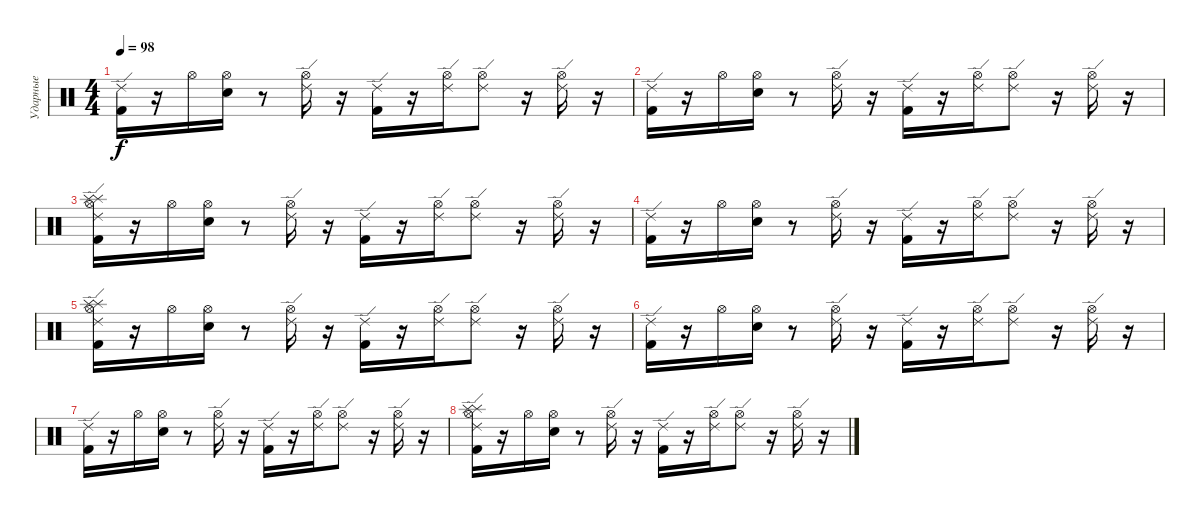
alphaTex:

\track ("Ударные" "Ударные") {instrument percussion}
\staff {score}
\articulation defaults
\ts (4 4)
\tempo 98
\clef neutral
\ks c
("Kick (hit) 2" "Ride (edge) 2").16{dy f} r.16 "Hi-Hat (open)".16 ("Snare (hit)" "Hi-Hat (open)").16 r.8 ("Ride (edge) 2" "Hi-Hat (open)").16 r.16 ("Kick (hit) 2" "Ride (edge) 2").16 r.16 ("Ride (edge) 2" "Hi-Hat (open)").16 ("Ride (edge) 2" "Hi-Hat (open)").8 r.16 ("Ride (edge) 2" "Hi-Hat (open)").16 r.16 |
("Kick (hit) 2" "Ride (edge) 2").16 r.16 "Hi-Hat (open)".16 ("Snare (hit)" "Hi-Hat (open)").16 r.8 ("Ride (edge) 2" "Hi-Hat (open)").16 r.16 ("Kick (hit) 2" "Ride (edge) 2").16 r.16 ("Ride (edge) 2" "Hi-Hat (open)").16 ("Ride (edge) 2" "Hi-Hat (open)").8 r.16 ("Ride (edge) 2" "Hi-Hat (open)").16 r.16 |
("Hi-Hat (open)" "Splash (hit)" "Splash (hit)" "Kick (hit) 2" "Ride (edge) 2").16 r.16 "Hi-Hat (open)".16 ("Snare (hit)" "Hi-Hat (open)").16 r.8 ("Ride (edge) 2" "Hi-Hat (open)").16 r.16 ("Kick (hit) 2" "Ride (edge) 2").16 r.16 ("Ride (edge) 2" "Hi-Hat (open)").16 ("Ride (edge) 2" "Hi-Hat (open)").8 r.16 ("Ride (edge) 2" "Hi-Hat (open)").16 r.16 |
("Kick (hit) 2" "Ride (edge) 2").16 r.16 "Hi-Hat (open)".16 ("Snare (hit)" "Hi-Hat (open)").16 r.8 ("Ride (edge) 2" "Hi-Hat (open)").16 r.16 ("Kick (hit) 2" "Ride (edge) 2").16 r.16 ("Ride (edge) 2" "Hi-Hat (open)").16 ("Ride (edge) 2" "Hi-Hat (open)").8 r.16 ("Ride (edge) 2" "Hi-Hat (open)").16 r.16 |
("Hi-Hat (open)" "Splash (hit)" "Splash (hit)" "Kick (hit) 2" "Ride (edge) 2").16 r.16 "Hi-Hat (open)".16 ("Snare (hit)" "Hi-Hat (open)").16 r.8 ("Ride (edge) 2" "Hi-Hat (open)").16 r.16 ("Kick (hit) 2" "Ride (edge) 2").16 r.16 ("Ride (edge) 2" "Hi-Hat (open)").16 ("Ride (edge) 2" "Hi-Hat (open)").8 r.16 ("Ride (edge) 2" "Hi-Hat (open)").16 r.16 |
("Kick (hit) 2" "Ride (edge) 2").16 r.16 "Hi-Hat (open)".16 ("Snare (hit)" "Hi-Hat (open)").16 r.8 ("Ride (edge) 2" "Hi-Hat (open)").16 r.16 ("Kick (hit) 2" "Ride (edge) 2").16 r.16 ("Ride (edge) 2" "Hi-Hat (open)").16 ("Ride (edge) 2" "Hi-Hat (open)").8 r.16 ("Ride (edge) 2" "Hi-Hat (open)").16 r.16 |
("Kick (hit) 2" "Ride (edge) 2").16 r.16 "Hi-Hat (open)".16 ("Snare (hit)" "Hi-Hat (open)").16 r.8 ("Ride (edge) 2" "Hi-Hat (open)").16 r.16 ("Kick (hit) 2" "Ride (edge) 2").16 r.16 ("Ride (edge) 2" "Hi-Hat (open)").16 ("Ride (edge) 2" "Hi-Hat (open)").8 r.16 ("Ride (edge) 2" "Hi-Hat (open)").16 r.16 |
("Hi-Hat (open)" "Splash (hit)" "Splash (hit)" "Kick (hit) 2" "Ride (edge) 2").16 r.16 "Hi-Hat (open)".16 ("Snare (hit)" "Hi-Hat (open)").16 r.8 ("Ride (edge) 2" "Hi-Hat (open)").16 r.16 ("Kick (hit) 2" "Ride (edge) 2").16 r.16 ("Ride (edge) 2" "Hi-Hat (open)").16 ("Ride (edge) 2" "Hi-Hat (open)").8 r.16 ("Ride (edge) 2" "Hi-Hat (open)").16 r.16
